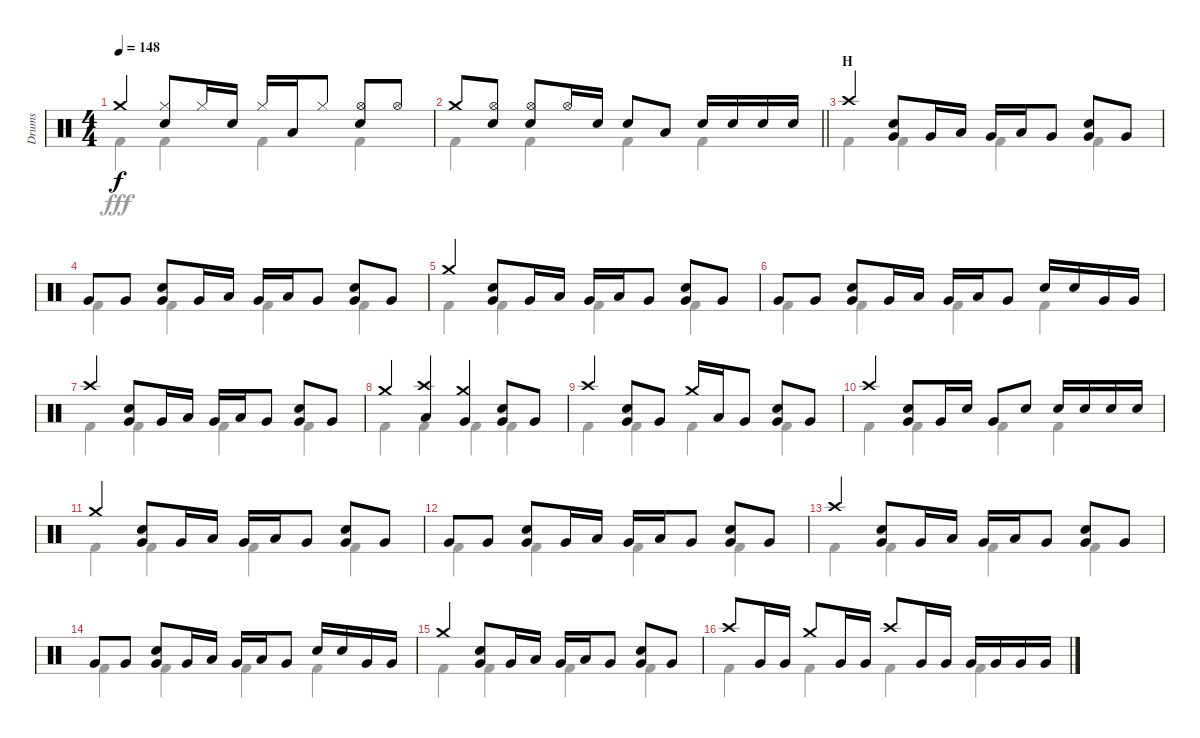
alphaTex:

\track ("Drums" "Drums") {instrument percussion}
\staff {score}
\articulation defaults
\voice
\ts (4 4)
\tempo 148
\clef neutral
\ks c "Crash medium (hit)".4{dy f}
("Hi-Hat (closed)" "Snare (hit) 2").8 "Hi-Hat (closed)".16 "Snare (hit) 2".16 "Hi-Hat (closed)".16 "Low Tom (hit)".16 "Hi-Hat (closed)".8 ("Hi-Hat (open)" "Snare (hit) 2").8 "Hi-Hat (open)".8 |
\barLineRight lightlight "Crash medium (hit)".8
("Hi-Hat (open)" "Snare (hit) 2").8 ("Hi-Hat (open)" "Snare (hit) 2").8 "Hi-Hat (open)".16 "Snare (hit) 2".16 "Snare (hit) 2".8 "Low Tom (hit)".8 "Snare (hit) 2".16 "Snare (hit) 2".16 "Snare (hit) 2".16 "Snare (hit) 2".16 |
\section ("" "H")
"Crash high (hit)".4 ("Snare (hit) 2" "Very Low Tom (hit)").8 "Very Low Tom (hit)".16 "Low Tom (hit)".16 "Very Low Tom (hit)".16 "Low Tom (hit)".16 "Very Low Tom (hit)".8 ("Snare (hit) 2" "Very Low Tom (hit)").8 "Very Low Tom (hit)".8 |
"Very Low Tom (hit)".8 "Very Low Tom (hit)".8 ("Snare (hit) 2" "Very Low Tom (hit)").8 "Very Low Tom (hit)".16 "Low Tom (hit)".16 "Very Low Tom (hit)".16 "Low Tom (hit)".16 "Very Low Tom (hit)".8 ("Snare (hit) 2" "Very Low Tom (hit)").8 "Very Low Tom (hit)".8 |
"Crash medium (hit)".4 ("Snare (hit) 2" "Very Low Tom (hit)").8 "Very Low Tom (hit)".16 "Low Tom (hit)".16 "Very Low Tom (hit)".16 "Low Tom (hit)".16 "Very Low Tom (hit)".8 ("Snare (hit) 2" "Very Low Tom (hit)").8 "Very Low Tom (hit)".8 |
"Very Low Tom (hit)".8 "Very Low Tom (hit)".8 ("Snare (hit) 2" "Very Low Tom (hit)").8 "Very Low Tom (hit)".16 "Low Tom (hit)".16 "Very Low Tom (hit)".16 "Low Tom (hit)".16 "Very Low Tom (hit)".8 "Snare (hit) 2".16 "Snare (hit) 2".16 "Very Low Tom (hit)".16 "Very Low Tom (hit)".16 |
"Crash high (hit)".4 ("Snare (hit) 2" "Very Low Tom (hit)").8 "Very Low Tom (hit)".16 "Low Tom (hit)".16 "Very Low Tom (hit)".16 "Low Tom (hit)".16 "Very Low Tom (hit)".8 ("Snare (hit) 2" "Very Low Tom (hit)").8 "Very Low Tom (hit)".8 |
"Crash medium (hit)".4 ("Crash high (hit)" "Low Tom (hit)").4 ("Crash medium (hit)" "Very Low Tom (hit)").4 ("Snare (hit) 2" "Very Low Tom (hit)").8 "Very Low Tom (hit)".8 |
"Crash high (hit)".4 ("Snare (hit) 2" "Very Low Tom (hit)").8 "Very Low Tom (hit)".8 "Crash medium (hit)".16 "Low Tom (hit)".16 "Very Low Tom (hit)".8 ("Snare (hit) 2" "Very Low Tom (hit)").8 "Very Low Tom (hit)".8 |
"Crash high (hit)".4 ("Snare (hit) 2" "Very Low Tom (hit)").8 "Very Low Tom (hit)".16 "Snare (hit) 2".16 "Very Low Tom (hit)".8 "Snare (hit) 2".8 "Snare (hit) 2".16 "Snare (hit) 2".16 "Snare (hit) 2".16 "Snare (hit) 2".16 |
"Crash medium (hit)".4 ("Snare (hit) 2" "Very Low Tom (hit)").8 "Very Low Tom (hit)".16 "Low Tom (hit)".16 "Very Low Tom (hit)".16 "Low Tom (hit)".16 "Very Low Tom (hit)".8 ("Snare (hit) 2" "Very Low Tom (hit)").8 "Very Low Tom (hit)".8 |
"Very Low Tom (hit)".8 "Very Low Tom (hit)".8 ("Snare (hit) 2" "Very Low Tom (hit)").8 "Very Low Tom (hit)".16 "Low Tom (hit)".16 "Very Low Tom (hit)".16 "Low Tom (hit)".16 "Very Low Tom (hit)".8 ("Snare (hit) 2" "Very Low Tom (hit)").8 "Very Low Tom (hit)".8 |
"Crash high (hit)".4 ("Snare (hit) 2" "Very Low Tom (hit)").8 "Very Low Tom (hit)".16 "Low Tom (hit)".16 "Very Low Tom (hit)".16 "Low Tom (hit)".16 "Very Low Tom (hit)".8 ("Snare (hit) 2" "Very Low Tom (hit)").8 "Very Low Tom (hit)".8 |
"Very Low Tom (hit)".8 "Very Low Tom (hit)".8 ("Snare (hit) 2" "Very Low Tom (hit)").8 "Very Low Tom (hit)".16 "Low Tom (hit)".16 "Very Low Tom (hit)".16 "Low Tom (hit)".16 "Very Low Tom (hit)".8 "Snare (hit) 2".16 "Snare (hit) 2".16 "Very Low Tom (hit)".16 "Very Low Tom (hit)".16 |
"Crash medium (hit)".4 ("Snare (hit) 2" "Very Low Tom (hit)").8 "Very Low Tom (hit)".16 "Low Tom (hit)".16 "Very Low Tom (hit)".16 "Low Tom (hit)".16 "Very Low Tom (hit)".8 ("Snare (hit) 2" "Very Low Tom (hit)").8 "Very Low Tom (hit)".8 |
"Crash high (hit)".8 "Very Low Tom (hit)".16 "Very Low Tom (hit)".16 "Crash medium (hit)".8 "Very Low Tom (hit)".16 "Very Low Tom (hit)".16 "Crash high (hit)".8 "Very Low Tom (hit)".16 "Very Low Tom (hit)".16 "Very Low Tom (hit)".16 "Very Low Tom (hit)".16 "Very Low Tom (hit)".16 "Very Low Tom (hit)".16
\voice
\clef neutral
\ottava regular
\simile none
\ks c "Kick (hit) 2".4{dy fff} "Kick (hit) 2".4 "Kick (hit) 2".4 "Kick (hit) 2".4
|
\barLineRight lightlight "Kick (hit) 2".4 "Kick (hit) 2".4 "Kick (hit) 2".4 "Kick (hit) 2".4
|
"Kick (hit) 2".4 "Kick (hit) 2".4 "Kick (hit) 2".4 "Kick (hit) 2".4 |
"Kick (hit) 2".4 "Kick (hit) 2".4 "Kick (hit) 2".4 "Kick (hit) 2".4 |
"Kick (hit) 2".4 "Kick (hit) 2".4 "Kick (hit) 2".4 "Kick (hit) 2".4 |
"Kick (hit) 2".4 "Kick (hit) 2".4 "Kick (hit) 2".4 "Kick (hit) 2".4 |
"Kick (hit) 2".4 "Kick (hit) 2".4 "Kick (hit) 2".4 "Kick (hit) 2".4 |
"Kick (hit) 2".4 "Kick (hit) 2".4 "Kick (hit) 2".4 "Kick (hit) 2".4 |
"Kick (hit) 2".4 "Kick (hit) 2".4 "Kick (hit) 2".4 "Kick (hit) 2".4 |
"Kick (hit) 2".4 "Kick (hit) 2".4 "Kick (hit) 2".4 "Kick (hit) 2".4 |
"Kick (hit) 2".4 "Kick (hit) 2".4 "Kick (hit) 2".4 "Kick (hit) 2".4 |
"Kick (hit) 2".4 "Kick (hit) 2".4 "Kick (hit) 2".4 "Kick (hit) 2".4 |
"Kick (hit) 2".4 "Kick (hit) 2".4 "Kick (hit) 2".4 "Kick (hit) 2".4 |
"Kick (hit) 2".4 "Kick (hit) 2".4 "Kick (hit) 2".4 "Kick (hit) 2".4 |
"Kick (hit) 2".4 "Kick (hit) 2".4 "Kick (hit) 2".4 "Kick (hit) 2".4 |
"Kick (hit) 2".4 "Kick (hit) 2".4 "Kick (hit) 2".4 "Kick (hit) 2".4
